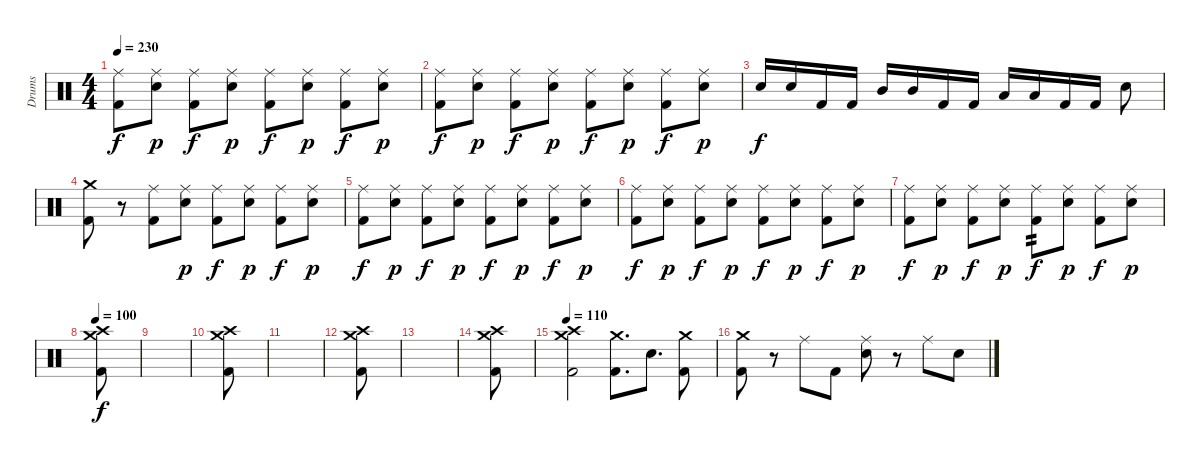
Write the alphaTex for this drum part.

\track ("Drums" "Drums") {instrument percussion}
\staff {score}
\articulation defaults
\ts (4 4)
\tempo 230
\clef neutral
\ks c
("Ride (middle)" "Kick (hit) 2").8{dy f} ("Ride (middle)" "Snare (hit) 2").8{dy p} ("Ride (middle)" "Kick (hit) 2").8{dy f} ("Ride (middle)" "Snare (hit) 2").8{dy p} ("Ride (middle)" "Kick (hit) 2").8{dy f} ("Ride (middle)" "Snare (hit) 2").8{dy p} ("Ride (middle)" "Kick (hit) 2").8{dy f} ("Ride (middle)" "Snare (hit) 2").8{dy p} |
("Ride (middle)" "Kick (hit) 2").8{dy f} ("Ride (middle)" "Snare (hit) 2").8{dy p} ("Ride (middle)" "Kick (hit) 2").8{dy f} ("Ride (middle)" "Snare (hit) 2").8{dy p} ("Ride (middle)" "Kick (hit) 2").8{dy f} ("Ride (middle)" "Snare (hit) 2").8{dy p} ("Ride (middle)" "Kick (hit) 2").8{dy f} ("Ride (middle)" "Snare (hit) 2").8{dy p} |
"Snare (hit) 2".16{dy f} "Snare (hit) 2".16 "Kick (hit) 2".16 "Kick (hit) 2".16 "Mid Tom (hit)".16 "Mid Tom (hit)".16 "Kick (hit) 2".16 "Kick (hit) 2".16 "Low Tom (hit)".16 "Low Tom (hit)".16 "Kick (hit) 2".16 "Kick (hit) 2".16 "Snare (hit) 2".8 |
("Crash medium (hit)" "Kick (hit) 2").8 r.8 ("Ride (middle)" "Kick (hit) 2").8 ("Ride (middle)" "Snare (hit) 2").8{dy p} ("Ride (middle)" "Kick (hit) 2").8{dy f} ("Ride (middle)" "Snare (hit) 2").8{dy p} ("Ride (middle)" "Kick (hit) 2").8{dy f} ("Ride (middle)" "Snare (hit) 2").8{dy p} |
("Ride (middle)" "Kick (hit) 2").8{dy f} ("Ride (middle)" "Snare (hit) 2").8{dy p} ("Ride (middle)" "Kick (hit) 2").8{dy f} ("Ride (middle)" "Snare (hit) 2").8{dy p} ("Ride (middle)" "Kick (hit) 2").8{dy f} ("Ride (middle)" "Snare (hit) 2").8{dy p} ("Ride (middle)" "Kick (hit) 2").8{dy f} ("Ride (middle)" "Snare (hit) 2").8{dy p} |
("Ride (middle)" "Kick (hit) 2").8{dy f} ("Ride (middle)" "Snare (hit) 2").8{dy p} ("Ride (middle)" "Kick (hit) 2").8{dy f} ("Ride (middle)" "Snare (hit) 2").8{dy p} ("Ride (middle)" "Kick (hit) 2").8{dy f} ("Ride (middle)" "Snare (hit) 2").8{dy p} ("Ride (middle)" "Kick (hit) 2").8{dy f} ("Ride (middle)" "Snare (hit) 2").8{dy p} |
("Ride (middle)" "Kick (hit) 2").8{dy f} ("Ride (middle)" "Snare (hit) 2").8{dy p} ("Ride (middle)" "Kick (hit) 2").8{dy f} ("Ride (middle)" "Snare (hit) 2").8{dy p} ("Ride (middle)" "Kick (hit) 2").8{tp 2 dy f} ("Ride (middle)" "Snare (hit) 2").8{dy p} ("Ride (middle)" "Kick (hit) 2").8{dy f} ("Ride (middle)" "Snare (hit) 2").8{dy p} |
\tempo 100
("Crash high (hit)" "Crash medium (hit)" "Kick (hit) 2").8{dy f} |
|
("Crash high (hit)" "Crash medium (hit)" "Kick (hit) 2").8 |
|
("Crash high (hit)" "Crash medium (hit)" "Kick (hit) 2").8 |
|
("Crash high (hit)" "Crash medium (hit)" "Kick (hit) 2").8 |
\tempo 110
("Crash high (hit)" "Crash medium (hit)" "Kick (hit) 2").2 ("Crash medium (hit)" "Kick (hit) 2").8{d} "Snare (hit) 2".8{d} ("Crash medium (hit)" "Kick (hit) 2").8 |
("Crash medium (hit)" "Kick (hit) 2").8 r.8 "Ride (middle)".8 "Kick (hit) 2".8 ("Ride (middle)" "Snare (hit) 2").8 r.8 "Ride (middle)".8 "Snare (hit) 2".8
